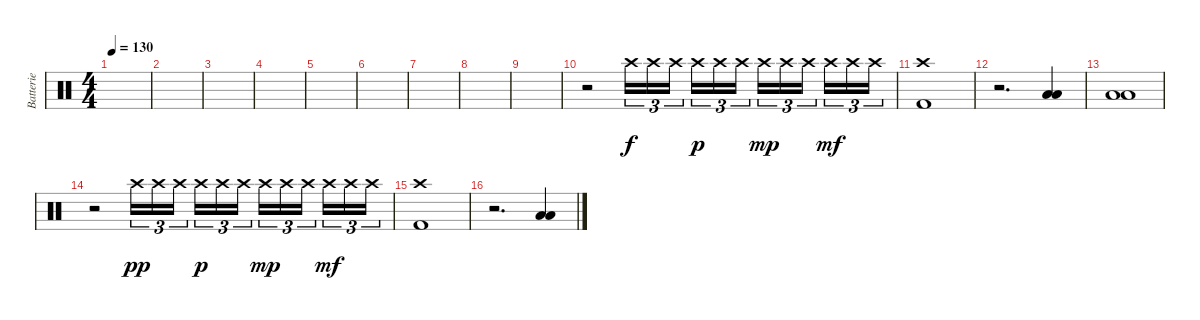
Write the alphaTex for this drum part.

\track ("Batterie" "Batterie") {instrument percussion}
\staff {score}
\articulation defaults
\ts (4 4)
\tempo 130
\clef neutral
\ks c
|
|
|
|
|
|
|
|
|
r.2 "Crash high (hit)".16{tu (3 2)} "Crash high (hit)".16{tu (3 2)} "Crash high (hit)".16{tu (3 2) beam splitsecondary} "Crash high (hit)".16{tu (3 2) dy p} "Crash high (hit)".16{tu (3 2)} "Crash high (hit)".16{tu (3 2)} "Crash high (hit)".16{tu (3 2) dy mp} "Crash high (hit)".16{tu (3 2)} "Crash high (hit)".16{tu (3 2) beam splitsecondary} "Crash high (hit)".16{tu (3 2) dy mf} "Crash high (hit)".16{tu (3 2)} "Crash high (hit)".16{tu (3 2)} |
("Crash high (hit)" "Kick (hit) 2").1 |
r.2{d} ("Low Tom (hit)" "Low Floor Tom (hit)").4 |
("Low Tom (hit)" "Low Floor Tom (hit)").1 |
r.2 "Crash high (hit)".16{tu (3 2) dy pp} "Crash high (hit)".16{tu (3 2)} "Crash high (hit)".16{tu (3 2) beam splitsecondary} "Crash high (hit)".16{tu (3 2) dy p} "Crash high (hit)".16{tu (3 2)} "Crash high (hit)".16{tu (3 2)} "Crash high (hit)".16{tu (3 2) dy mp} "Crash high (hit)".16{tu (3 2)} "Crash high (hit)".16{tu (3 2) beam splitsecondary} "Crash high (hit)".16{tu (3 2) dy mf} "Crash high (hit)".16{tu (3 2)} "Crash high (hit)".16{tu (3 2)} |
("Crash high (hit)" "Kick (hit) 2").1 |
r.2{d} ("Low Tom (hit)" "Low Floor Tom (hit)").4
